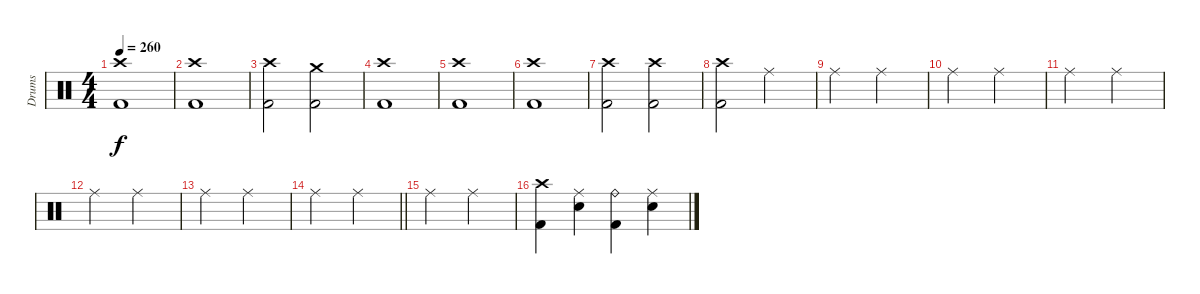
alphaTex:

\track ("Drums" "Drums") {instrument percussion}
\staff {score}
\articulation defaults
\ts (4 4)
\tempo 260
\clef neutral
\ks c
("Crash high (hit)" "Kick (hit) 2").1{dy f} |
("Crash high (hit)" "Kick (hit) 2").1 |
("Crash high (hit)" "Kick (hit) 2").2 ("Crash medium (hit)" "Kick (hit) 2").2 |
("Crash high (hit)" "Kick (hit) 2").1 |
("Crash high (hit)" "Kick (hit) 2").1 |
("Crash high (hit)" "Kick (hit) 2").1 |
("Crash high (hit)" "Kick (hit) 2").2 ("Crash high (hit)" "Kick (hit) 2").2 |
("Crash high (hit)" "Kick (hit) 2").2 "Ride (middle)".2 |
"Ride (middle)".2 "Ride (middle)".2 |
"Ride (middle)".2 "Ride (middle)".2 |
"Ride (middle)".2 "Ride (middle)".2 |
"Ride (middle)".2 "Ride (middle)".2 |
"Ride (middle)".2 "Ride (middle)".2 |
\barLineRight lightlight "Ride (middle)".2 "Ride (middle)".2
|
"Ride (middle)".2 "Ride (middle)".2 |
("Crash high (hit)" "Kick (hit) 2").4 ("Ride (middle)" "Electric Snare (hit)").4 ("Ride (bell)" "Kick (hit) 2").4 ("Ride (middle)" "Electric Snare (hit)").4
